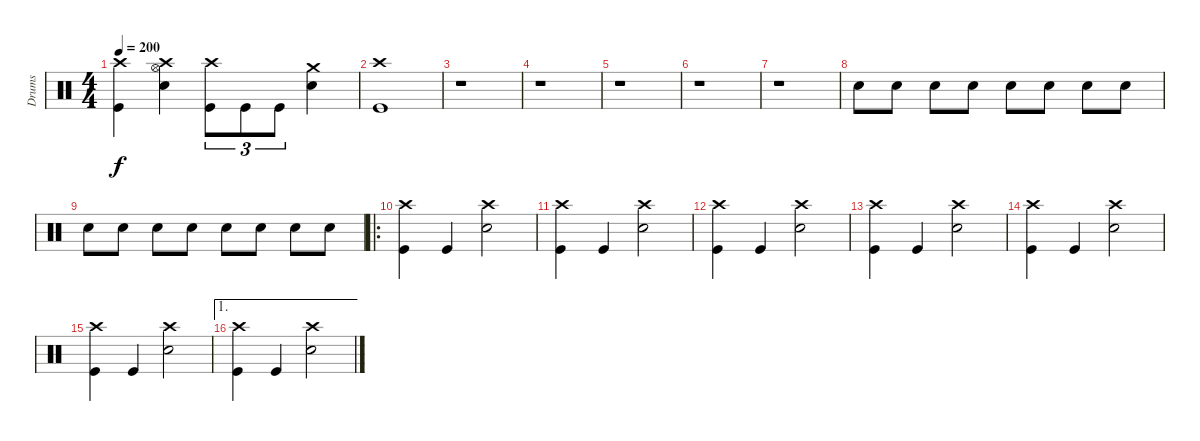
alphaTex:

\track ("Drums" "Drums") {instrument percussion}
\staff {score}
\articulation defaults
\ts (4 4)
\tempo 200
\clef neutral
\ks c
("Crash high (hit)" "Kick (hit)").4{dy f} ("Crash high (hit)" "Snare (hit) 2" "Hi-Hat (open)").4 ("Crash high (hit)" "Kick (hit)").8{tu (3 2)} "Kick (hit)".8{tu (3 2)} "Kick (hit)".8{tu (3 2)} ("Crash medium (hit)" "Snare (hit) 2").4 |
("Crash high (hit)" "Kick (hit)").1 |
r.1 |
r.1 |
r.1 |
r.1 |
r.1 |
"Snare (hit) 2".8{volume 10} "Snare (hit) 2".8 "Snare (hit) 2".8{volume 11} "Snare (hit) 2".8 "Snare (hit) 2".8{volume 13} "Snare (hit) 2".8 "Snare (hit) 2".8{volume 14} "Snare (hit) 2".8 |
"Snare (hit) 2".8{volume 16} "Snare (hit) 2".8 "Snare (hit) 2".8 "Snare (hit) 2".8 "Snare (hit) 2".8 "Snare (hit) 2".8 "Snare (hit) 2".8 "Snare (hit) 2".8 |
\ro
("Crash high (hit)" "Kick (hit)").4 "Kick (hit)".4 ("Crash high (hit)" "Snare (hit) 2").2 |
("Crash high (hit)" "Kick (hit)").4 "Kick (hit)".4 ("Crash high (hit)" "Snare (hit) 2").2 |
("Crash high (hit)" "Kick (hit)").4 "Kick (hit)".4 ("Crash high (hit)" "Snare (hit) 2").2 |
("Crash high (hit)" "Kick (hit)").4 "Kick (hit)".4 ("Crash high (hit)" "Snare (hit) 2").2 |
("Crash high (hit)" "Kick (hit)").4 "Kick (hit)".4 ("Crash high (hit)" "Snare (hit) 2").2 |
("Crash high (hit)" "Kick (hit)").4 "Kick (hit)".4 ("Crash high (hit)" "Snare (hit) 2").2 |
\ae 1
("Crash high (hit)" "Kick (hit)").4 "Kick (hit)".4 ("Crash high (hit)" "Snare (hit) 2").2
